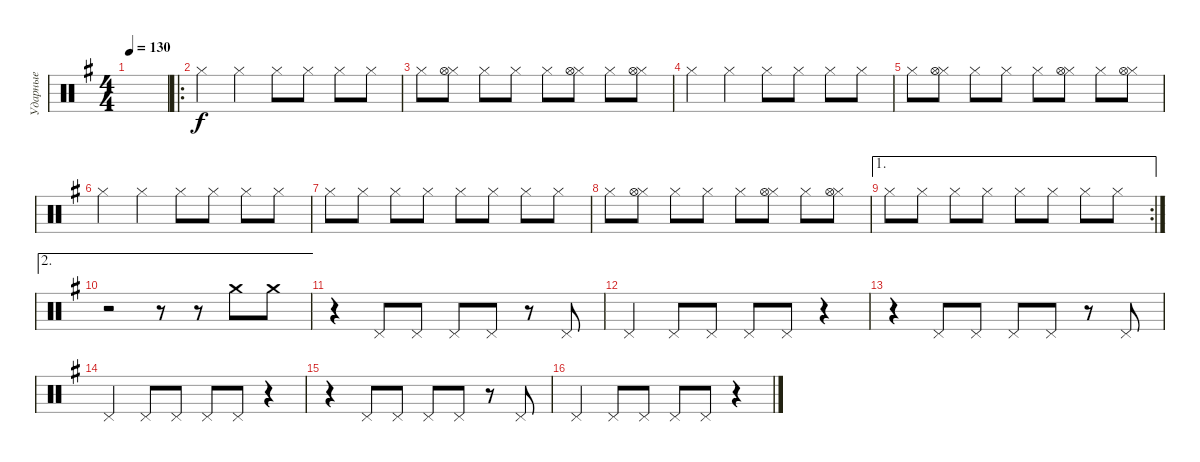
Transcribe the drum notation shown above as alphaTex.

\track ("Ударные" "Ударные") {instrument percussion}
\staff {score}
\articulation defaults
\ts (4 4)
\tempo 130
\clef neutral
\ks g
|
\ro "Hi-Hat (closed)".4 "Hi-Hat (closed)".4 "Hi-Hat (closed)".8 "Hi-Hat (closed)".8 "Hi-Hat (closed)".8 "Hi-Hat (closed)".8
|
"Hi-Hat (closed)".8 ("Hi-Hat (closed)" "Hi-Hat (open)").8 "Hi-Hat (closed)".8 "Hi-Hat (closed)".8 "Hi-Hat (closed)".8 ("Hi-Hat (closed)" "Hi-Hat (open)").8 "Hi-Hat (closed)".8 ("Hi-Hat (closed)" "Hi-Hat (open)").8 |
"Hi-Hat (closed)".4 "Hi-Hat (closed)".4 "Hi-Hat (closed)".8 "Hi-Hat (closed)".8 "Hi-Hat (closed)".8 "Hi-Hat (closed)".8 |
"Hi-Hat (closed)".8 ("Hi-Hat (closed)" "Hi-Hat (open)").8 "Hi-Hat (closed)".8 "Hi-Hat (closed)".8 "Hi-Hat (closed)".8 ("Hi-Hat (closed)" "Hi-Hat (open)").8 "Hi-Hat (closed)".8 ("Hi-Hat (closed)" "Hi-Hat (open)").8 |
"Hi-Hat (closed)".4 "Hi-Hat (closed)".4 "Hi-Hat (closed)".8 "Hi-Hat (closed)".8 "Hi-Hat (closed)".8 "Hi-Hat (closed)".8 |
"Hi-Hat (closed)".8 "Hi-Hat (closed)".8 "Hi-Hat (closed)".8 "Hi-Hat (closed)".8 "Hi-Hat (closed)".8 "Hi-Hat (closed)".8 "Hi-Hat (closed)".8 "Hi-Hat (closed)".8 |
"Hi-Hat (closed)".8 ("Hi-Hat (closed)" "Hi-Hat (open)").8 "Hi-Hat (closed)".8 "Hi-Hat (closed)".8 "Hi-Hat (closed)".8 ("Hi-Hat (closed)" "Hi-Hat (open)").8 "Hi-Hat (closed)".8 ("Hi-Hat (closed)" "Hi-Hat (open)").8 |
\ae 1
\rc 2 "Hi-Hat (closed)".8 "Hi-Hat (closed)".8 "Hi-Hat (closed)".8 "Hi-Hat (closed)".8 "Hi-Hat (closed)".8 "Hi-Hat (closed)".8 "Hi-Hat (closed)".8 "Hi-Hat (closed)".8
|
\ae 2
r.2 r.8 r.8 "Crash medium (hit)".8 "Crash medium (hit)".8 |
r.4 "Pedal Hi-Hat (hit)".8 "Pedal Hi-Hat (hit)".8 "Pedal Hi-Hat (hit)".8 "Pedal Hi-Hat (hit)".8 r.8 "Pedal Hi-Hat (hit)".8 |
"Pedal Hi-Hat (hit)".4 "Pedal Hi-Hat (hit)".8 "Pedal Hi-Hat (hit)".8 "Pedal Hi-Hat (hit)".8 "Pedal Hi-Hat (hit)".8 r.4 |
r.4 "Pedal Hi-Hat (hit)".8 "Pedal Hi-Hat (hit)".8 "Pedal Hi-Hat (hit)".8 "Pedal Hi-Hat (hit)".8 r.8 "Pedal Hi-Hat (hit)".8 |
"Pedal Hi-Hat (hit)".4 "Pedal Hi-Hat (hit)".8 "Pedal Hi-Hat (hit)".8 "Pedal Hi-Hat (hit)".8 "Pedal Hi-Hat (hit)".8 r.4 |
r.4 "Pedal Hi-Hat (hit)".8 "Pedal Hi-Hat (hit)".8 "Pedal Hi-Hat (hit)".8 "Pedal Hi-Hat (hit)".8 r.8 "Pedal Hi-Hat (hit)".8 |
"Pedal Hi-Hat (hit)".4 "Pedal Hi-Hat (hit)".8 "Pedal Hi-Hat (hit)".8 "Pedal Hi-Hat (hit)".8 "Pedal Hi-Hat (hit)".8 r.4
